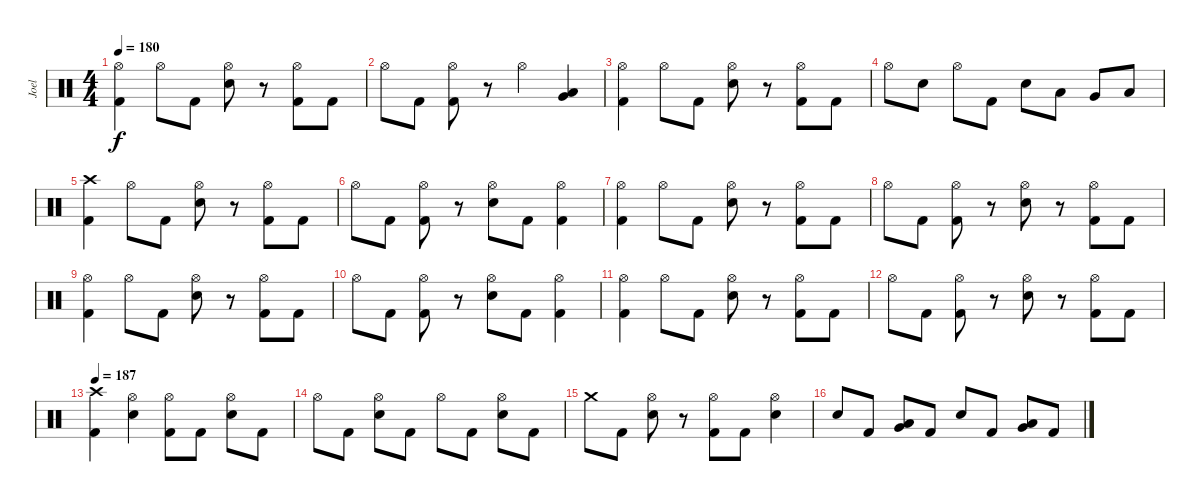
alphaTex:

\track ("Joel" "Joel") {instrument percussion}
\staff {score}
\articulation defaults
\ts (4 4)
\tempo 180
\clef neutral
\ks c
("Hi-Hat (open)" "Kick (hit) 2").4{dy f} "Hi-Hat (open)".8 "Kick (hit) 2".8 ("Hi-Hat (open)" "Snare (hit) 2").8 r.8 ("Hi-Hat (open)" "Kick (hit) 2").8 "Kick (hit) 2".8 |
"Hi-Hat (open)".8 "Kick (hit) 2".8 ("Hi-Hat (open)" "Kick (hit) 2").8 r.8 "Hi-Hat (open)".4 ("Very Low Tom (hit)" "Low Floor Tom (hit)").4 |
("Hi-Hat (open)" "Kick (hit) 2").4 "Hi-Hat (open)".8 "Kick (hit) 2".8 ("Hi-Hat (open)" "Snare (hit) 2").8 r.8 ("Hi-Hat (open)" "Kick (hit) 2").8 "Kick (hit) 2".8 |
"Hi-Hat (open)".8 "Snare (hit) 2".8 "Hi-Hat (open)".8 "Kick (hit) 2".8 "Snare (hit) 2".8 "Low Tom (hit)".8 "Very Low Tom (hit)".8 "Low Floor Tom (hit)".8 |
("Crash high (hit)" "Kick (hit) 2").4 "Hi-Hat (open)".8 "Kick (hit) 2".8 ("Hi-Hat (open)" "Snare (hit) 2").8 r.8 ("Hi-Hat (open)" "Kick (hit) 2").8 "Kick (hit) 2".8 |
"Hi-Hat (open)".8 "Kick (hit) 2".8 ("Hi-Hat (open)" "Kick (hit) 2").8 r.8 ("Hi-Hat (open)" "Snare (hit) 2").8 "Kick (hit) 2".8 ("Hi-Hat (open)" "Kick (hit) 2").4 |
("Hi-Hat (open)" "Kick (hit) 2").4 "Hi-Hat (open)".8 "Kick (hit) 2".8 ("Hi-Hat (open)" "Snare (hit) 2").8 r.8 ("Hi-Hat (open)" "Kick (hit) 2").8 "Kick (hit) 2".8 |
"Hi-Hat (open)".8 "Kick (hit) 2".8 ("Hi-Hat (open)" "Kick (hit) 2").8 r.8 ("Hi-Hat (open)" "Snare (hit) 2").8 r.8 ("Hi-Hat (open)" "Kick (hit) 2").8 "Kick (hit) 2".8 |
("Hi-Hat (open)" "Kick (hit) 2").4 "Hi-Hat (open)".8 "Kick (hit) 2".8 ("Hi-Hat (open)" "Snare (hit) 2").8 r.8 ("Hi-Hat (open)" "Kick (hit) 2").8 "Kick (hit) 2".8 |
"Hi-Hat (open)".8 "Kick (hit) 2".8 ("Hi-Hat (open)" "Kick (hit) 2").8 r.8 ("Hi-Hat (open)" "Snare (hit) 2").8 "Kick (hit) 2".8 ("Hi-Hat (open)" "Kick (hit) 2").4 |
("Hi-Hat (open)" "Kick (hit) 2").4 "Hi-Hat (open)".8 "Kick (hit) 2".8 ("Hi-Hat (open)" "Snare (hit) 2").8 r.8 ("Hi-Hat (open)" "Kick (hit) 2").8 "Kick (hit) 2".8 |
"Hi-Hat (open)".8 "Kick (hit) 2".8 ("Hi-Hat (open)" "Kick (hit) 2").8 r.8 ("Hi-Hat (open)" "Snare (hit) 2").8 r.8 ("Hi-Hat (open)" "Kick (hit) 2").8 "Kick (hit) 2".8 |
\tempo 187
("Crash high (hit)" "Kick (hit) 2").4 ("Hi-Hat (open)" "Snare (hit) 2").4 ("Hi-Hat (open)" "Kick (hit) 2").8 "Kick (hit) 2".8 ("Hi-Hat (open)" "Snare (hit) 2").8 "Kick (hit) 2".8 |
"Hi-Hat (open)".8 "Kick (hit) 2".8 ("Hi-Hat (open)" "Snare (hit) 2").8 "Kick (hit) 2".8 "Hi-Hat (open)".8 "Kick (hit) 2".8 ("Hi-Hat (open)" "Snare (hit) 2").8 "Kick (hit) 2".8 |
"Crash medium (hit)".8 "Kick (hit) 2".8 ("Hi-Hat (open)" "Snare (hit) 2").8 r.8 ("Hi-Hat (open)" "Kick (hit) 2").8 "Kick (hit) 2".8 ("Hi-Hat (open)" "Snare (hit) 2").4 |
"Snare (hit) 2".8 "Kick (hit) 2".8 ("Very Low Tom (hit)" "Low Floor Tom (hit)").8 "Kick (hit) 2".8 "Snare (hit) 2".8 "Kick (hit) 2".8 ("Very Low Tom (hit)" "Low Floor Tom (hit)").8 "Kick (hit) 2".8
